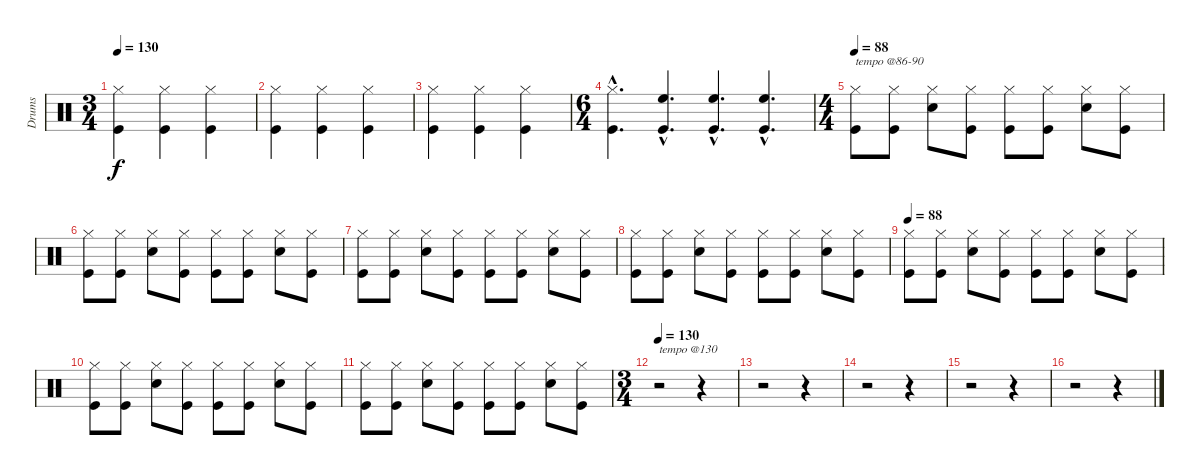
\track ("Drums" "Drums") {instrument percussion}
\staff {score}
\articulation defaults
\ts (3 4)
\tempo 130
\clef neutral
\ks c
("Hi-Hat (closed)" "Kick (hit)").4{dy f} ("Hi-Hat (closed)" "Kick (hit)").4 ("Hi-Hat (closed)" "Kick (hit)").4 |
("Hi-Hat (closed)" "Kick (hit)").4 ("Hi-Hat (closed)" "Kick (hit)").4 ("Hi-Hat (closed)" "Kick (hit)").4 |
("Hi-Hat (closed)" "Kick (hit)").4 ("Hi-Hat (closed)" "Kick (hit)").4 ("Hi-Hat (closed)" "Kick (hit)").4 |
\ts (6 4)
("Hi-Hat (closed)"{hac} "Kick (hit)"{hac}).4{d} ("High Floor Tom (hit)"{hac} "Kick (hit)"{hac}).4{d} ("High Floor Tom (hit)"{hac} "Kick (hit)"{hac}).4{d} ("High Floor Tom (hit)"{hac} "Kick (hit)"{hac}).4{d} |
\ts (4 4)
\tempo 88
("Hi-Hat (closed)" "Kick (hit)").8{txt "tempo @86-90"} ("Hi-Hat (closed)" "Kick (hit)").8 ("Hi-Hat (closed)" "Snare (hit) 2").8 ("Hi-Hat (closed)" "Kick (hit)").8 ("Hi-Hat (closed)" "Kick (hit)").8 ("Hi-Hat (closed)" "Kick (hit)").8 ("Hi-Hat (closed)" "Snare (hit) 2").8 ("Hi-Hat (closed)" "Kick (hit)").8 |
("Hi-Hat (closed)" "Kick (hit)").8 ("Hi-Hat (closed)" "Kick (hit)").8 ("Hi-Hat (closed)" "Snare (hit) 2").8 ("Hi-Hat (closed)" "Kick (hit)").8 ("Hi-Hat (closed)" "Kick (hit)").8 ("Hi-Hat (closed)" "Kick (hit)").8 ("Hi-Hat (closed)" "Snare (hit) 2").8 ("Hi-Hat (closed)" "Kick (hit)").8 |
("Hi-Hat (closed)" "Kick (hit)").8 ("Hi-Hat (closed)" "Kick (hit)").8 ("Hi-Hat (closed)" "Snare (hit) 2").8 ("Hi-Hat (closed)" "Kick (hit)").8 ("Hi-Hat (closed)" "Kick (hit)").8 ("Hi-Hat (closed)" "Kick (hit)").8 ("Hi-Hat (closed)" "Snare (hit) 2").8 ("Hi-Hat (closed)" "Kick (hit)").8 |
("Hi-Hat (closed)" "Kick (hit)").8 ("Hi-Hat (closed)" "Kick (hit)").8 ("Hi-Hat (closed)" "Snare (hit) 2").8 ("Hi-Hat (closed)" "Kick (hit)").8 ("Hi-Hat (closed)" "Kick (hit)").8 ("Hi-Hat (closed)" "Kick (hit)").8 ("Hi-Hat (closed)" "Snare (hit) 2").8 ("Hi-Hat (closed)" "Kick (hit)").8 |
\tempo 88
("Hi-Hat (closed)" "Kick (hit)").8 ("Hi-Hat (closed)" "Kick (hit)").8 ("Hi-Hat (closed)" "Snare (hit) 2").8 ("Hi-Hat (closed)" "Kick (hit)").8 ("Hi-Hat (closed)" "Kick (hit)").8 ("Hi-Hat (closed)" "Kick (hit)").8 ("Hi-Hat (closed)" "Snare (hit) 2").8 ("Hi-Hat (closed)" "Kick (hit)").8 |
("Hi-Hat (closed)" "Kick (hit)").8 ("Hi-Hat (closed)" "Kick (hit)").8 ("Hi-Hat (closed)" "Snare (hit) 2").8 ("Hi-Hat (closed)" "Kick (hit)").8 ("Hi-Hat (closed)" "Kick (hit)").8 ("Hi-Hat (closed)" "Kick (hit)").8 ("Hi-Hat (closed)" "Snare (hit) 2").8 ("Hi-Hat (closed)" "Kick (hit)").8 |
("Hi-Hat (closed)" "Kick (hit)").8 ("Hi-Hat (closed)" "Kick (hit)").8 ("Hi-Hat (closed)" "Snare (hit) 2").8 ("Hi-Hat (closed)" "Kick (hit)").8 ("Hi-Hat (closed)" "Kick (hit)").8 ("Hi-Hat (closed)" "Kick (hit)").8 ("Hi-Hat (closed)" "Snare (hit) 2").8 ("Hi-Hat (closed)" "Kick (hit)").8 |
\ts (3 4)
\tempo 130
r.2{txt "tempo @130"} r.4 |
r.2 r.4 |
r.2 r.4 |
r.2 r.4 |
r.2 r.4
